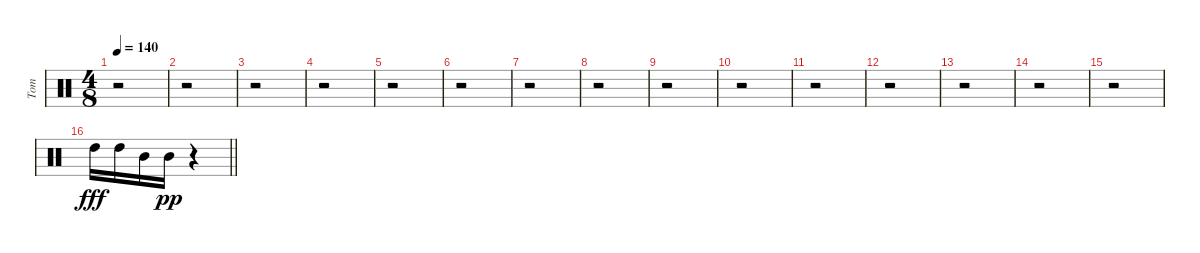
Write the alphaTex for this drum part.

\track ("Tom" "Tom") {instrument percussion}
\staff {score}
\articulation defaults
\ts (4 8)
\tempo 140
\clef neutral
\ks c
r.2{dy fff} |
r.2 |
r.2 |
r.2 |
r.2 |
r.2 |
r.2 |
r.2 |
r.2 |
r.2 |
r.2 |
r.2 |
r.2 |
r.2 |
r.2 |
\barLineRight lightlight "High Tom (hit)".16 "High Tom (hit)".16 "Mid Tom (hit)".16 "Mid Tom (hit)".16{dy pp}
r.4
